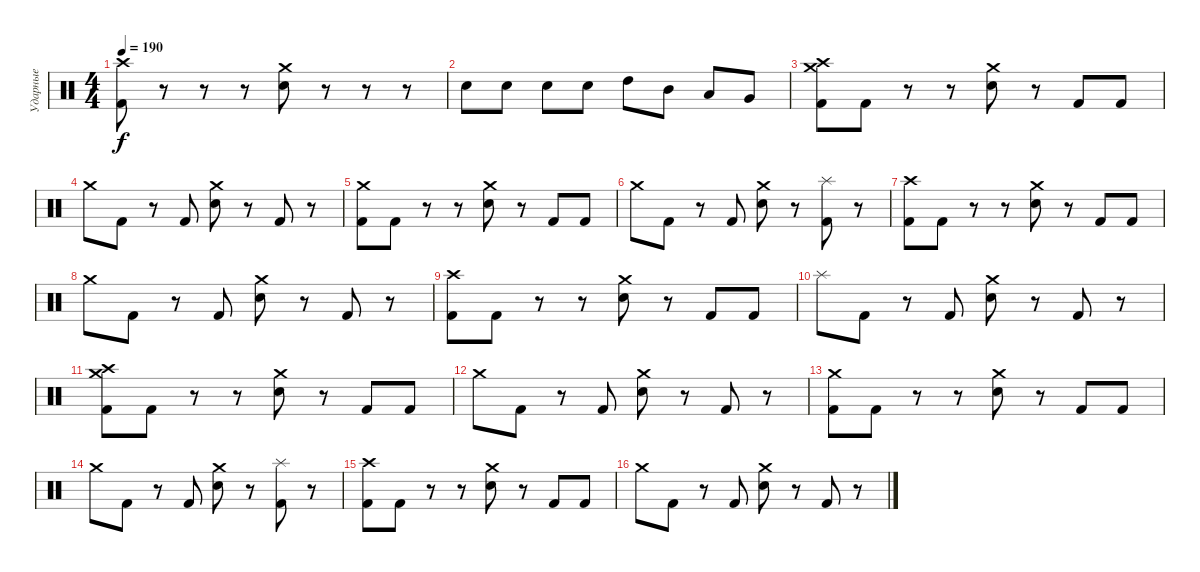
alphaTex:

\track ("Ударные" "Ударные") {instrument percussion}
\staff {score}
\articulation defaults
\ts (4 4)
\tempo 190
\clef neutral
\ks c
("Kick (hit) 2" "Crash high (hit)").8{dy f} r.8 r.8 r.8 ("Electric Snare (hit)" "Crash medium (hit)").8 r.8 r.8 r.8 |
"Electric Snare (hit)".8 "Electric Snare (hit)".8 "Electric Snare (hit)".8 "Electric Snare (hit)".8 "High Tom (hit)".8 "Mid Tom (hit)".8 "Low Tom (hit)".8 "Very Low Tom (hit)".8 |
("Kick (hit) 2" "Crash high (hit)" "Crash medium (hit)").8 "Kick (hit) 2".8 r.8 r.8 ("Electric Snare (hit)" "Crash medium (hit)").8 r.8 "Kick (hit) 2".8 "Kick (hit) 2".8 |
"Crash medium (hit)".8 "Kick (hit) 2".8 r.8 "Kick (hit) 2".8 ("Electric Snare (hit)" "Crash medium (hit)").8 r.8 "Kick (hit) 2".8 r.8 |
("Kick (hit) 2" "Crash medium (hit)").8 "Kick (hit) 2".8 r.8 r.8 ("Electric Snare (hit)" "Crash medium (hit)").8 r.8 "Kick (hit) 2".8 "Kick (hit) 2".8 |
"Crash medium (hit)".8 "Kick (hit) 2".8 r.8 "Kick (hit) 2".8 ("Electric Snare (hit)" "Crash medium (hit)").8 r.8 ("Kick (hit) 2" "Splash (hit)").8 r.8 |
("Kick (hit) 2" "Crash high (hit)").8 "Kick (hit) 2".8 r.8 r.8 ("Electric Snare (hit)" "Crash medium (hit)").8 r.8 "Kick (hit) 2".8 "Kick (hit) 2".8 |
"Crash medium (hit)".8 "Kick (hit) 2".8 r.8 "Kick (hit) 2".8 ("Electric Snare (hit)" "Crash medium (hit)").8 r.8 "Kick (hit) 2".8 r.8 |
("Kick (hit) 2" "Crash high (hit)").8 "Kick (hit) 2".8 r.8 r.8 ("Electric Snare (hit)" "Crash medium (hit)").8 r.8 "Kick (hit) 2".8 "Kick (hit) 2".8 |
"Splash (hit)".8 "Kick (hit) 2".8 r.8 "Kick (hit) 2".8 ("Electric Snare (hit)" "Crash medium (hit)").8 r.8 "Kick (hit) 2".8 r.8 |
("Kick (hit) 2" "Crash high (hit)" "Crash medium (hit)").8 "Kick (hit) 2".8 r.8 r.8 ("Electric Snare (hit)" "Crash medium (hit)").8 r.8 "Kick (hit) 2".8 "Kick (hit) 2".8 |
"Crash medium (hit)".8 "Kick (hit) 2".8 r.8 "Kick (hit) 2".8 ("Electric Snare (hit)" "Crash medium (hit)").8 r.8 "Kick (hit) 2".8 r.8 |
("Kick (hit) 2" "Crash medium (hit)").8 "Kick (hit) 2".8 r.8 r.8 ("Electric Snare (hit)" "Crash medium (hit)").8 r.8 "Kick (hit) 2".8 "Kick (hit) 2".8 |
"Crash medium (hit)".8 "Kick (hit) 2".8 r.8 "Kick (hit) 2".8 ("Electric Snare (hit)" "Crash medium (hit)").8 r.8 ("Kick (hit) 2" "Splash (hit)").8 r.8 |
("Kick (hit) 2" "Crash high (hit)").8 "Kick (hit) 2".8 r.8 r.8 ("Electric Snare (hit)" "Crash medium (hit)").8 r.8 "Kick (hit) 2".8 "Kick (hit) 2".8 |
"Crash medium (hit)".8 "Kick (hit) 2".8 r.8 "Kick (hit) 2".8 ("Electric Snare (hit)" "Crash medium (hit)").8 r.8 "Kick (hit) 2".8 r.8
